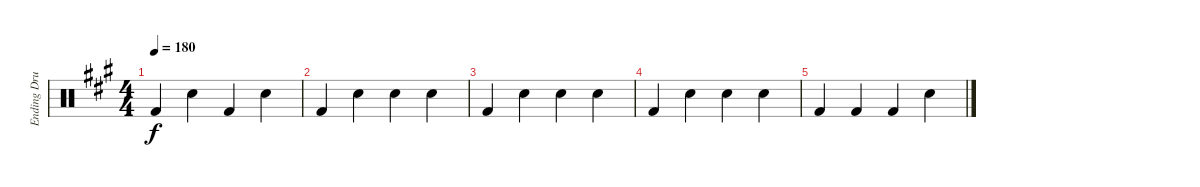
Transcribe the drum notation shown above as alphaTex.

\track ("Ending Drums" "Ending Dru") {instrument percussion}
\staff {score}
\articulation defaults
\ts (4 4)
\tempo 180
\clef neutral
\ks a "Kick (hit) 2".4{dy f} "Electric Snare (hit)".4 "Kick (hit) 2".4 "Electric Snare (hit)".4
|
"Kick (hit) 2".4 "Electric Snare (hit)".4 "Electric Snare (hit)".4 "Electric Snare (hit)".4 |
"Kick (hit) 2".4 "Electric Snare (hit)".4 "Electric Snare (hit)".4 "Electric Snare (hit)".4 |
"Kick (hit) 2".4 "Electric Snare (hit)".4 "Electric Snare (hit)".4 "Electric Snare (hit)".4 |
"Kick (hit) 2".4 "Kick (hit) 2".4 "Kick (hit) 2".4 "Electric Snare (hit)".4
